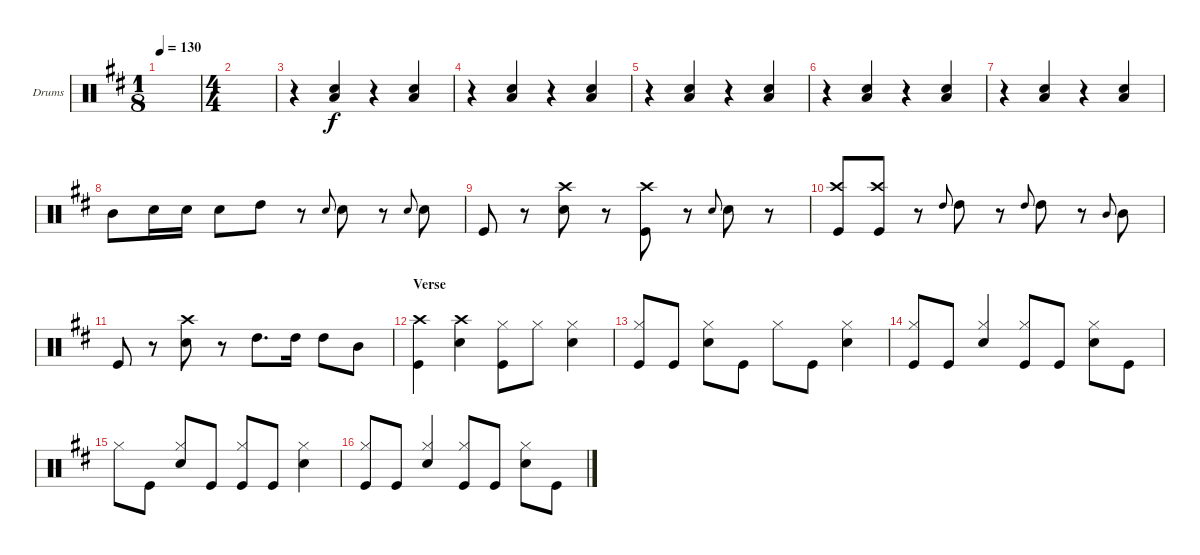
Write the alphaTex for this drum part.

\defaultSystemsLayout 4
\bracketExtendMode groupsimilarinstruments
\firstSystemTrackNameOrientation horizontal
\otherSystemsTrackNameOrientation horizontal
\track ("PETER CRISS" "Drums") {instrument percussion}
\staff {score}
\articulation defaults
\ts (1 8)
\tempo 130
\clef neutral
\scale
0.404682
\ks d
|
\ts (4 4)
\scale
0.404682 |
\scale
0.190635 r.4 ("Snare (hit) 2" "Low Tom (hit)").4{beam invert} r.4 ("Low Tom (hit)" "Snare (hit) 2").4{beam invert} |
\scale
0.333333 r.4 ("Snare (hit) 2" "Low Tom (hit)").4{beam invert} r.4 ("Low Tom (hit)" "Snare (hit) 2").4{beam invert} |
\scale
0.333333 r.4 ("Snare (hit) 2" "Low Tom (hit)").4{beam invert} r.4 ("Low Tom (hit)" "Snare (hit) 2").4{beam invert} |
\scale
0.333333 r.4 ("Snare (hit) 2" "Low Tom (hit)").4{beam invert} r.4 ("Low Tom (hit)" "Snare (hit) 2").4{beam invert} |
\scale
0.333333 r.4 ("Snare (hit) 2" "Low Tom (hit)").4{beam invert} r.4 ("Low Tom (hit)" "Snare (hit) 2").4{beam invert} |
\scale
0.333333 "Mid Tom (hit)".8 "Snare (hit) 2".16 "Snare (hit) 2".16 "Snare (hit) 2".8 "High Tom (hit)".8 r.8 "Snare (hit) 2".8{gr onbeat} "Snare (hit) 2".8 r.8 "Snare (hit) 2".8{gr onbeat} "Snare (hit) 2".8 |
\scale
0.333333 "Kick (hit)".8 r.8 ("Snare (hit) 2" "Crash high (hit)").8 r.8 ("Crash high (hit)" "Kick (hit)").8 r.8 "Snare (hit) 2".8{gr onbeat} "Snare (hit) 2".8 r.8 |
\scale
0.333333 ("Kick (hit)" "Crash high (hit)").8{beam invert} ("Crash high (hit)" "Kick (hit)").8 r.8 "High Tom (hit)".8{gr onbeat} "High Tom (hit)".8 r.8 "High Tom (hit)".8{gr onbeat} "High Tom (hit)".8 r.8 "Mid Tom (hit)".8{gr onbeat} "Mid Tom (hit)".8 |
\scale
0.333333 "Kick (hit)".8 r.8 ("Snare (hit) 2" "Crash high (hit)").8 r.8 "High Tom (hit)".8{d} "High Tom (hit)".16 "High Tom (hit)".8 "Mid Tom (hit)".8 |
\section ("" "Verse")
\scale
0.333333 ("Crash high (hit)" "Kick (hit)").4 ("Snare (hit) 2" "Crash high (hit)").4 ("Kick (hit)" "Hi-Hat (closed)").8 "Hi-Hat (closed)".8 ("Snare (hit) 2" "Hi-Hat (closed)").4 |
\scale
0.333333 ("Hi-Hat (closed)" "Kick (hit)").8{beam invert} "Kick (hit)".8 ("Snare (hit) 2" "Hi-Hat (closed)").8 "Kick (hit)".8 "Hi-Hat (closed)".8 "Kick (hit)".8 ("Snare (hit) 2" "Hi-Hat (closed)").4 |
\scale
0.333333 ("Kick (hit)" "Hi-Hat (closed)").8{beam invert} "Kick (hit)".8 ("Snare (hit) 2" "Hi-Hat (closed)").4 ("Hi-Hat (closed)" "Kick (hit)").8{beam invert} "Kick (hit)".8 ("Snare (hit) 2" "Hi-Hat (closed)").8 "Kick (hit)".8 |
\scale
0.333333 "Hi-Hat (closed)".8 "Kick (hit)".8 ("Snare (hit) 2" "Hi-Hat (closed)").8 "Kick (hit)".8 ("Hi-Hat (closed)" "Kick (hit)").8{beam invert} "Kick (hit)".8 ("Snare (hit) 2" "Hi-Hat (closed)").4 |
\scale
0.333333 ("Kick (hit)" "Hi-Hat (closed)").8{beam invert} "Kick (hit)".8 ("Snare (hit) 2" "Hi-Hat (closed)").4 ("Kick (hit)" "Hi-Hat (closed)").8{beam invert} "Kick (hit)".8 ("Snare (hit) 2" "Hi-Hat (closed)").8 "Kick (hit)".8
